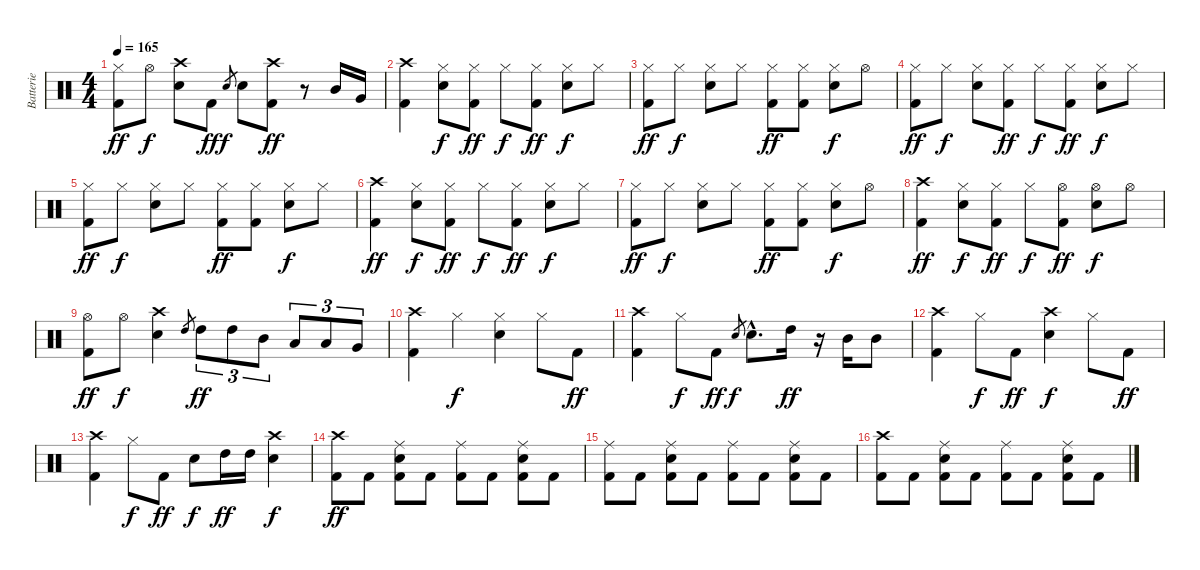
\track ("Batterie" "Batterie") {instrument percussion}
\staff {score}
\articulation defaults
\ts (4 4)
\tempo 165
\clef neutral
\ks c
("Hi-Hat (closed)" "Kick (hit) 2").8{dy ff} "Hi-Hat (open)".8{dy f} ("Crash high (hit)" "Snare (hit) 2").8 "Kick (hit) 2".8{dy ff} "Snare (hit) 2".8{gr dy f} "Snare (hit) 2".8 ("Crash high (hit)" "Kick (hit) 2").8{dy ff} r.8 "Mid Tom (hit)".16 "Very Low Tom (hit)".16 |
("Crash high (hit)" "Kick (hit) 2").4 ("Hi-Hat (closed)" "Snare (hit) 2").8{dy f} ("Hi-Hat (closed)" "Kick (hit) 2").8{dy ff} "Hi-Hat (closed)".8{dy f} ("Hi-Hat (closed)" "Kick (hit) 2").8{dy ff} ("Hi-Hat (closed)" "Snare (hit) 2").8{dy f} "Hi-Hat (closed)".8 |
("Hi-Hat (closed)" "Kick (hit) 2").8{dy ff} "Hi-Hat (closed)".8{dy f} ("Hi-Hat (closed)" "Snare (hit) 2").8 "Hi-Hat (closed)".8 ("Hi-Hat (closed)" "Kick (hit) 2").8{dy ff} ("Hi-Hat (closed)" "Kick (hit) 2").8 ("Hi-Hat (closed)" "Snare (hit) 2").8{dy f} "Hi-Hat (open)".8 |
("Hi-Hat (closed)" "Kick (hit) 2").8{dy ff} "Hi-Hat (closed)".8{dy f} ("Hi-Hat (closed)" "Snare (hit) 2").8 ("Hi-Hat (closed)" "Kick (hit) 2").8{dy ff} "Hi-Hat (closed)".8{dy f} ("Hi-Hat (closed)" "Kick (hit) 2").8{dy ff} ("Hi-Hat (closed)" "Snare (hit) 2").8{dy f} "Hi-Hat (closed)".8 |
("Hi-Hat (closed)" "Kick (hit) 2").8{dy ff} "Hi-Hat (closed)".8{dy f} ("Hi-Hat (closed)" "Snare (hit) 2").8 "Hi-Hat (closed)".8 ("Hi-Hat (closed)" "Kick (hit) 2").8{dy ff} ("Hi-Hat (closed)" "Kick (hit) 2").8 ("Hi-Hat (closed)" "Snare (hit) 2").8{dy f} "Hi-Hat (closed)".8 |
("Crash high (hit)" "Kick (hit) 2").4{dy ff} ("Hi-Hat (closed)" "Snare (hit) 2").8{dy f} ("Hi-Hat (closed)" "Kick (hit) 2").8{dy ff} "Hi-Hat (closed)".8{dy f} ("Hi-Hat (closed)" "Kick (hit) 2").8{dy ff} ("Hi-Hat (closed)" "Snare (hit) 2").8{dy f} "Hi-Hat (closed)".8 |
("Hi-Hat (closed)" "Kick (hit) 2").8{dy ff} "Hi-Hat (closed)".8{dy f} ("Hi-Hat (closed)" "Snare (hit) 2").8 "Hi-Hat (closed)".8 ("Hi-Hat (closed)" "Kick (hit) 2").8{dy ff} ("Hi-Hat (closed)" "Kick (hit) 2").8 ("Hi-Hat (closed)" "Snare (hit) 2").8{dy f} "Hi-Hat (open)".8 |
("Crash high (hit)" "Kick (hit) 2").4{dy ff} ("Hi-Hat (closed)" "Snare (hit) 2").8{dy f} ("Hi-Hat (closed)" "Kick (hit) 2").8{dy ff} "Hi-Hat (closed)".8{dy f} ("Hi-Hat (open)" "Kick (hit) 2").8{dy ff} ("Hi-Hat (open)" "Snare (hit) 2").8{dy f} "Hi-Hat (open)".8 |
("Hi-Hat (open)" "Kick (hit) 2").8{dy ff} "Hi-Hat (open)".8{dy f} ("Crash high (hit)" "Snare (hit) 2").4 "High Tom (hit)".8{gr} "High Tom (hit)".8{tu (3 2) dy ff} "High Tom (hit)".8{tu (3 2)} "Mid Tom (hit)".8{tu (3 2)} "Low Tom (hit)".8{tu (3 2)} "Low Tom (hit)".8{tu (3 2)} "Very Low Tom (hit)".8{tu (3 2)} |
("Crash high (hit)" "Kick (hit) 2").4 "Hi-Hat (closed)".4{dy f} ("Hi-Hat (closed)" "Snare (hit) 2").4 "Hi-Hat (closed)".8 "Kick (hit) 2".8{dy ff} |
("Crash high (hit)" "Kick (hit) 2").4 "Hi-Hat (closed)".8{dy f} "Kick (hit) 2".8{dy ff} "Snare (hit) 2".8{gr dy f} "Snare (hit) 2"{hac}.8{d} "High Tom (hit)".16{dy ff} r.16 "Mid Tom (hit)".16 "Mid Tom (hit)".8 |
("Crash high (hit)" "Kick (hit) 2").4 "Hi-Hat (closed)".8{dy f} "Kick (hit) 2".8{dy ff} ("Crash high (hit)" "Snare (hit) 2").4{dy f} "Hi-Hat (closed)".8 "Kick (hit) 2".8{dy ff} |
("Crash high (hit)" "Kick (hit) 2").4 "Hi-Hat (closed)".8{dy f} "Kick (hit) 2".8{dy ff} "Snare (hit) 2".8{dy f} "High Tom (hit)".16{dy ff} "High Tom (hit)".16 ("Crash high (hit)" "Snare (hit) 2").4{dy f} |
("Crash high (hit)" "Kick (hit) 2").8{dy ff} "Kick (hit) 2".8 ("Ride (middle)" "Snare (hit) 2" "Kick (hit) 2").8 "Kick (hit) 2".8 ("Ride (middle)" "Kick (hit) 2").8 "Kick (hit) 2".8 ("Ride (middle)" "Snare (hit) 2" "Kick (hit) 2").8 "Kick (hit) 2".8 |
("Ride (middle)" "Kick (hit) 2").8 "Kick (hit) 2".8 ("Ride (middle)" "Snare (hit) 2" "Kick (hit) 2").8 "Kick (hit) 2".8 ("Ride (middle)" "Kick (hit) 2").8 "Kick (hit) 2".8 ("Ride (middle)" "Snare (hit) 2" "Kick (hit) 2").8 "Kick (hit) 2".8 |
("Crash high (hit)" "Kick (hit) 2").8 "Kick (hit) 2".8 ("Ride (middle)" "Snare (hit) 2" "Kick (hit) 2").8 "Kick (hit) 2".8 ("Ride (middle)" "Kick (hit) 2").8 "Kick (hit) 2".8 ("Ride (middle)" "Snare (hit) 2" "Kick (hit) 2").8 "Kick (hit) 2".8
